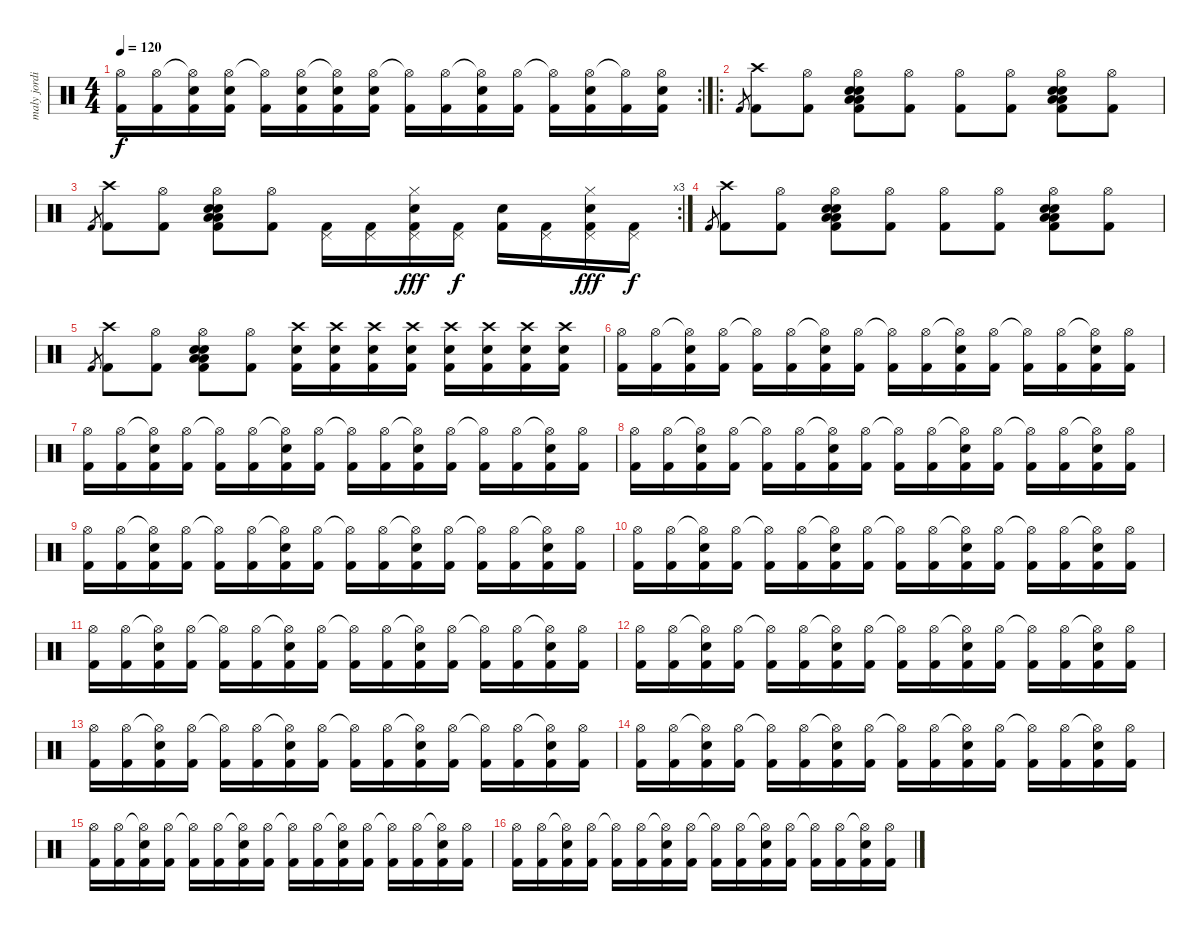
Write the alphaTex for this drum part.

\track ("maly jordison - Battery" "maly jordi") {instrument percussion}
\staff {score}
\articulation defaults
\rc 2
\ts (4 4)
\tempo 120
\clef neutral
\ks c
("Hi-Hat (open)" "Kick (hit) 2").16{dy f} ("Hi-Hat (open)" "Kick (hit) 2").16 ("Hi-Hat (open)"{t} "Electric Snare (hit)" "Kick (hit) 2").16 ("Hi-Hat (open)" "Electric Snare (hit)" "Kick (hit) 2").16 ("Hi-Hat (open)"{t} "Kick (hit) 2").16 ("Hi-Hat (open)" "Electric Snare (hit)" "Kick (hit) 2").16 ("Hi-Hat (open)"{t} "Electric Snare (hit)" "Kick (hit) 2").16 ("Hi-Hat (open)" "Electric Snare (hit)" "Kick (hit) 2").16 ("Hi-Hat (open)"{t} "Kick (hit) 2").16 ("Hi-Hat (open)" "Kick (hit) 2").16 ("Hi-Hat (open)"{t} "Electric Snare (hit)" "Kick (hit) 2").16 ("Hi-Hat (open)" "Kick (hit) 2").16 ("Hi-Hat (open)"{t} "Kick (hit) 2").16 ("Hi-Hat (open)" "Electric Snare (hit)" "Kick (hit) 2").16 ("Hi-Hat (open)"{t} "Kick (hit) 2").16 ("Hi-Hat (open)" "Electric Snare (hit)" "Kick (hit) 2").16 |
\ro "Kick (hit) 2".8{gr}
("Crash high (hit)" "Kick (hit) 2").8 ("Hi-Hat (open)" "Kick (hit) 2").8 ("Hi-Hat (open)" "Low Floor Tom (hit)" "Kick (hit) 2" "Electric Snare (hit)" "Low Floor Tom (hit)" "Electric Snare (hit)").8 ("Hi-Hat (open)" "Kick (hit) 2").8 ("Hi-Hat (open)" "Kick (hit) 2").8 ("Hi-Hat (open)" "Kick (hit) 2").8 ("Hi-Hat (open)" "Low Floor Tom (hit)" "Kick (hit) 2" "Electric Snare (hit)" "Low Floor Tom (hit)" "Electric Snare (hit)").8 ("Hi-Hat (open)" "Kick (hit) 2").8 |
\rc 3 "Kick (hit) 2".8{gr}
("Crash high (hit)" "Kick (hit) 2").8 ("Hi-Hat (open)" "Kick (hit) 2").8 ("Hi-Hat (open)" "Low Floor Tom (hit)" "Kick (hit) 2" "Electric Snare (hit)" "Low Floor Tom (hit)" "Electric Snare (hit)").8 ("Hi-Hat (open)" "Kick (hit) 2").8 ("Pedal Hi-Hat (hit)" "Kick (hit) 2").16 ("Pedal Hi-Hat (hit)" "Kick (hit) 2").16 ("Pedal Hi-Hat (hit)" "Hi-Hat (closed)" "Electric Snare (hit)" "Kick (hit) 2").16{dy fff} ("Pedal Hi-Hat (hit)" "Kick (hit) 2").16{dy f} ("Snare (hit)" "Kick (hit) 2").16 ("Pedal Hi-Hat (hit)" "Kick (hit) 2").16 ("Pedal Hi-Hat (hit)" "Hi-Hat (closed)" "Electric Snare (hit)" "Kick (hit) 2").16{dy fff} ("Pedal Hi-Hat (hit)" "Kick (hit) 2").16{dy f} |
"Kick (hit) 2".8{gr} ("Crash high (hit)" "Kick (hit) 2").8 ("Hi-Hat (open)" "Kick (hit) 2").8 ("Hi-Hat (open)" "Low Floor Tom (hit)" "Kick (hit) 2" "Electric Snare (hit)" "Low Floor Tom (hit)" "Electric Snare (hit)").8 ("Hi-Hat (open)" "Kick (hit) 2").8 ("Hi-Hat (open)" "Kick (hit) 2").8 ("Hi-Hat (open)" "Kick (hit) 2").8 ("Hi-Hat (open)" "Low Floor Tom (hit)" "Kick (hit) 2" "Electric Snare (hit)" "Low Floor Tom (hit)" "Electric Snare (hit)").8 ("Hi-Hat (open)" "Kick (hit) 2").8 |
"Kick (hit) 2".8{gr} ("Crash high (hit)" "Kick (hit) 2").8 ("Hi-Hat (open)" "Kick (hit) 2").8 ("Hi-Hat (open)" "Low Floor Tom (hit)" "Kick (hit) 2" "Electric Snare (hit)" "Low Floor Tom (hit)" "Electric Snare (hit)").8 ("Hi-Hat (open)" "Kick (hit) 2").8 ("Crash high (hit)" "Electric Snare (hit)" "Kick (hit) 2").16 ("Crash high (hit)" "Electric Snare (hit)" "Kick (hit) 2").16 ("Crash high (hit)" "Electric Snare (hit)" "Kick (hit) 2").16 ("Crash high (hit)" "Electric Snare (hit)" "Kick (hit) 2").16 ("Crash high (hit)" "Electric Snare (hit)" "Kick (hit) 2").16 ("Crash high (hit)" "Electric Snare (hit)" "Kick (hit) 2").16 ("Crash high (hit)" "Electric Snare (hit)" "Kick (hit) 2").16 ("Crash high (hit)" "Electric Snare (hit)" "Kick (hit) 2").16 |
("Hi-Hat (open)" "Kick (hit) 2").16 ("Hi-Hat (open)" "Kick (hit) 2").16 ("Hi-Hat (open)"{t} "Electric Snare (hit)" "Kick (hit) 2").16 ("Hi-Hat (open)" "Kick (hit) 2").16 ("Hi-Hat (open)"{t} "Kick (hit) 2").16 ("Hi-Hat (open)" "Kick (hit) 2").16 ("Hi-Hat (open)"{t} "Electric Snare (hit)" "Kick (hit) 2").16 ("Hi-Hat (open)" "Kick (hit) 2").16 ("Hi-Hat (open)"{t} "Kick (hit) 2").16 ("Hi-Hat (open)" "Kick (hit) 2").16 ("Hi-Hat (open)"{t} "Electric Snare (hit)" "Kick (hit) 2").16 ("Hi-Hat (open)" "Kick (hit) 2").16 ("Hi-Hat (open)"{t} "Kick (hit) 2").16 ("Hi-Hat (open)" "Kick (hit) 2").16 ("Hi-Hat (open)"{t} "Electric Snare (hit)" "Kick (hit) 2").16 ("Hi-Hat (open)" "Kick (hit) 2").16 |
("Hi-Hat (open)" "Kick (hit) 2").16 ("Hi-Hat (open)" "Kick (hit) 2").16 ("Hi-Hat (open)"{t} "Electric Snare (hit)" "Kick (hit) 2").16 ("Hi-Hat (open)" "Kick (hit) 2").16 ("Hi-Hat (open)"{t} "Kick (hit) 2").16 ("Hi-Hat (open)" "Kick (hit) 2").16 ("Hi-Hat (open)"{t} "Electric Snare (hit)" "Kick (hit) 2").16 ("Hi-Hat (open)" "Kick (hit) 2").16 ("Hi-Hat (open)"{t} "Kick (hit) 2").16 ("Hi-Hat (open)" "Kick (hit) 2").16 ("Hi-Hat (open)"{t} "Electric Snare (hit)" "Kick (hit) 2").16 ("Hi-Hat (open)" "Kick (hit) 2").16 ("Hi-Hat (open)"{t} "Kick (hit) 2").16 ("Hi-Hat (open)" "Kick (hit) 2").16 ("Hi-Hat (open)"{t} "Electric Snare (hit)" "Kick (hit) 2").16 ("Hi-Hat (open)" "Kick (hit) 2").16 |
("Hi-Hat (open)" "Kick (hit) 2").16 ("Hi-Hat (open)" "Kick (hit) 2").16 ("Hi-Hat (open)"{t} "Electric Snare (hit)" "Kick (hit) 2").16 ("Hi-Hat (open)" "Kick (hit) 2").16 ("Hi-Hat (open)"{t} "Kick (hit) 2").16 ("Hi-Hat (open)" "Kick (hit) 2").16 ("Hi-Hat (open)"{t} "Electric Snare (hit)" "Kick (hit) 2").16 ("Hi-Hat (open)" "Kick (hit) 2").16 ("Hi-Hat (open)"{t} "Kick (hit) 2").16 ("Hi-Hat (open)" "Kick (hit) 2").16 ("Hi-Hat (open)"{t} "Electric Snare (hit)" "Kick (hit) 2").16 ("Hi-Hat (open)" "Kick (hit) 2").16 ("Hi-Hat (open)"{t} "Kick (hit) 2").16 ("Hi-Hat (open)" "Kick (hit) 2").16 ("Hi-Hat (open)"{t} "Electric Snare (hit)" "Kick (hit) 2").16 ("Hi-Hat (open)" "Kick (hit) 2").16 |
("Hi-Hat (open)" "Kick (hit) 2").16 ("Hi-Hat (open)" "Kick (hit) 2").16 ("Hi-Hat (open)"{t} "Electric Snare (hit)" "Kick (hit) 2").16 ("Hi-Hat (open)" "Kick (hit) 2").16 ("Hi-Hat (open)"{t} "Kick (hit) 2").16 ("Hi-Hat (open)" "Kick (hit) 2").16 ("Hi-Hat (open)"{t} "Electric Snare (hit)" "Kick (hit) 2").16 ("Hi-Hat (open)" "Kick (hit) 2").16 ("Hi-Hat (open)"{t} "Kick (hit) 2").16 ("Hi-Hat (open)" "Kick (hit) 2").16 ("Hi-Hat (open)"{t} "Electric Snare (hit)" "Kick (hit) 2").16 ("Hi-Hat (open)" "Kick (hit) 2").16 ("Hi-Hat (open)"{t} "Kick (hit) 2").16 ("Hi-Hat (open)" "Kick (hit) 2").16 ("Hi-Hat (open)"{t} "Electric Snare (hit)" "Kick (hit) 2").16 ("Hi-Hat (open)" "Kick (hit) 2").16 |
("Hi-Hat (open)" "Kick (hit) 2").16 ("Hi-Hat (open)" "Kick (hit) 2").16 ("Hi-Hat (open)"{t} "Electric Snare (hit)" "Kick (hit) 2").16 ("Hi-Hat (open)" "Kick (hit) 2").16 ("Hi-Hat (open)"{t} "Kick (hit) 2").16 ("Hi-Hat (open)" "Kick (hit) 2").16 ("Hi-Hat (open)"{t} "Electric Snare (hit)" "Kick (hit) 2").16 ("Hi-Hat (open)" "Kick (hit) 2").16 ("Hi-Hat (open)"{t} "Kick (hit) 2").16 ("Hi-Hat (open)" "Kick (hit) 2").16 ("Hi-Hat (open)"{t} "Electric Snare (hit)" "Kick (hit) 2").16 ("Hi-Hat (open)" "Kick (hit) 2").16 ("Hi-Hat (open)"{t} "Kick (hit) 2").16 ("Hi-Hat (open)" "Kick (hit) 2").16 ("Hi-Hat (open)"{t} "Electric Snare (hit)" "Kick (hit) 2").16 ("Hi-Hat (open)" "Kick (hit) 2").16 |
("Hi-Hat (open)" "Kick (hit) 2").16 ("Hi-Hat (open)" "Kick (hit) 2").16 ("Hi-Hat (open)"{t} "Electric Snare (hit)" "Kick (hit) 2").16 ("Hi-Hat (open)" "Kick (hit) 2").16 ("Hi-Hat (open)"{t} "Kick (hit) 2").16 ("Hi-Hat (open)" "Kick (hit) 2").16 ("Hi-Hat (open)"{t} "Electric Snare (hit)" "Kick (hit) 2").16 ("Hi-Hat (open)" "Kick (hit) 2").16 ("Hi-Hat (open)"{t} "Kick (hit) 2").16 ("Hi-Hat (open)" "Kick (hit) 2").16 ("Hi-Hat (open)"{t} "Electric Snare (hit)" "Kick (hit) 2").16 ("Hi-Hat (open)" "Kick (hit) 2").16 ("Hi-Hat (open)"{t} "Kick (hit) 2").16 ("Hi-Hat (open)" "Kick (hit) 2").16 ("Hi-Hat (open)"{t} "Electric Snare (hit)" "Kick (hit) 2").16 ("Hi-Hat (open)" "Kick (hit) 2").16 |
("Hi-Hat (open)" "Kick (hit) 2").16 ("Hi-Hat (open)" "Kick (hit) 2").16 ("Hi-Hat (open)"{t} "Electric Snare (hit)" "Kick (hit) 2").16 ("Hi-Hat (open)" "Kick (hit) 2").16 ("Hi-Hat (open)"{t} "Kick (hit) 2").16 ("Hi-Hat (open)" "Kick (hit) 2").16 ("Hi-Hat (open)"{t} "Electric Snare (hit)" "Kick (hit) 2").16 ("Hi-Hat (open)" "Kick (hit) 2").16 ("Hi-Hat (open)"{t} "Kick (hit) 2").16 ("Hi-Hat (open)" "Kick (hit) 2").16 ("Hi-Hat (open)"{t} "Electric Snare (hit)" "Kick (hit) 2").16 ("Hi-Hat (open)" "Kick (hit) 2").16 ("Hi-Hat (open)"{t} "Kick (hit) 2").16 ("Hi-Hat (open)" "Kick (hit) 2").16 ("Hi-Hat (open)"{t} "Electric Snare (hit)" "Kick (hit) 2").16 ("Hi-Hat (open)" "Kick (hit) 2").16 |
("Hi-Hat (open)" "Kick (hit) 2").16 ("Hi-Hat (open)" "Kick (hit) 2").16 ("Hi-Hat (open)"{t} "Electric Snare (hit)" "Kick (hit) 2").16 ("Hi-Hat (open)" "Kick (hit) 2").16 ("Hi-Hat (open)"{t} "Kick (hit) 2").16 ("Hi-Hat (open)" "Kick (hit) 2").16 ("Hi-Hat (open)"{t} "Electric Snare (hit)" "Kick (hit) 2").16 ("Hi-Hat (open)" "Kick (hit) 2").16 ("Hi-Hat (open)"{t} "Kick (hit) 2").16 ("Hi-Hat (open)" "Kick (hit) 2").16 ("Hi-Hat (open)"{t} "Electric Snare (hit)" "Kick (hit) 2").16 ("Hi-Hat (open)" "Kick (hit) 2").16 ("Hi-Hat (open)"{t} "Kick (hit) 2").16 ("Hi-Hat (open)" "Kick (hit) 2").16 ("Hi-Hat (open)"{t} "Electric Snare (hit)" "Kick (hit) 2").16 ("Hi-Hat (open)" "Kick (hit) 2").16 |
("Hi-Hat (open)" "Kick (hit) 2").16 ("Hi-Hat (open)" "Kick (hit) 2").16 ("Hi-Hat (open)"{t} "Electric Snare (hit)" "Kick (hit) 2").16 ("Hi-Hat (open)" "Kick (hit) 2").16 ("Hi-Hat (open)"{t} "Kick (hit) 2").16 ("Hi-Hat (open)" "Kick (hit) 2").16 ("Hi-Hat (open)"{t} "Electric Snare (hit)" "Kick (hit) 2").16 ("Hi-Hat (open)" "Kick (hit) 2").16 ("Hi-Hat (open)"{t} "Kick (hit) 2").16 ("Hi-Hat (open)" "Kick (hit) 2").16 ("Hi-Hat (open)"{t} "Electric Snare (hit)" "Kick (hit) 2").16 ("Hi-Hat (open)" "Kick (hit) 2").16 ("Hi-Hat (open)"{t} "Kick (hit) 2").16 ("Hi-Hat (open)" "Kick (hit) 2").16 ("Hi-Hat (open)"{t} "Electric Snare (hit)" "Kick (hit) 2").16 ("Hi-Hat (open)" "Kick (hit) 2").16 |
("Hi-Hat (open)" "Kick (hit) 2").16 ("Hi-Hat (open)" "Kick (hit) 2").16 ("Hi-Hat (open)"{t} "Electric Snare (hit)" "Kick (hit) 2").16 ("Hi-Hat (open)" "Kick (hit) 2").16 ("Hi-Hat (open)"{t} "Kick (hit) 2").16 ("Hi-Hat (open)" "Kick (hit) 2").16 ("Hi-Hat (open)"{t} "Electric Snare (hit)" "Kick (hit) 2").16 ("Hi-Hat (open)" "Kick (hit) 2").16 ("Hi-Hat (open)"{t} "Kick (hit) 2").16 ("Hi-Hat (open)" "Kick (hit) 2").16 ("Hi-Hat (open)"{t} "Electric Snare (hit)" "Kick (hit) 2").16 ("Hi-Hat (open)" "Kick (hit) 2").16 ("Hi-Hat (open)"{t} "Kick (hit) 2").16 ("Hi-Hat (open)" "Kick (hit) 2").16 ("Hi-Hat (open)"{t} "Electric Snare (hit)" "Kick (hit) 2").16 ("Hi-Hat (open)" "Kick (hit) 2").16 |
("Hi-Hat (open)" "Kick (hit) 2").16 ("Hi-Hat (open)" "Kick (hit) 2").16 ("Hi-Hat (open)"{t} "Electric Snare (hit)" "Kick (hit) 2").16 ("Hi-Hat (open)" "Kick (hit) 2").16 ("Hi-Hat (open)"{t} "Kick (hit) 2").16 ("Hi-Hat (open)" "Kick (hit) 2").16 ("Hi-Hat (open)"{t} "Electric Snare (hit)" "Kick (hit) 2").16 ("Hi-Hat (open)" "Kick (hit) 2").16 ("Hi-Hat (open)"{t} "Kick (hit) 2").16 ("Hi-Hat (open)" "Kick (hit) 2").16 ("Hi-Hat (open)"{t} "Electric Snare (hit)" "Kick (hit) 2").16 ("Hi-Hat (open)" "Kick (hit) 2").16 ("Hi-Hat (open)"{t} "Kick (hit) 2").16 ("Hi-Hat (open)" "Kick (hit) 2").16 ("Hi-Hat (open)"{t} "Electric Snare (hit)" "Kick (hit) 2").16 ("Hi-Hat (open)" "Kick (hit) 2").16
